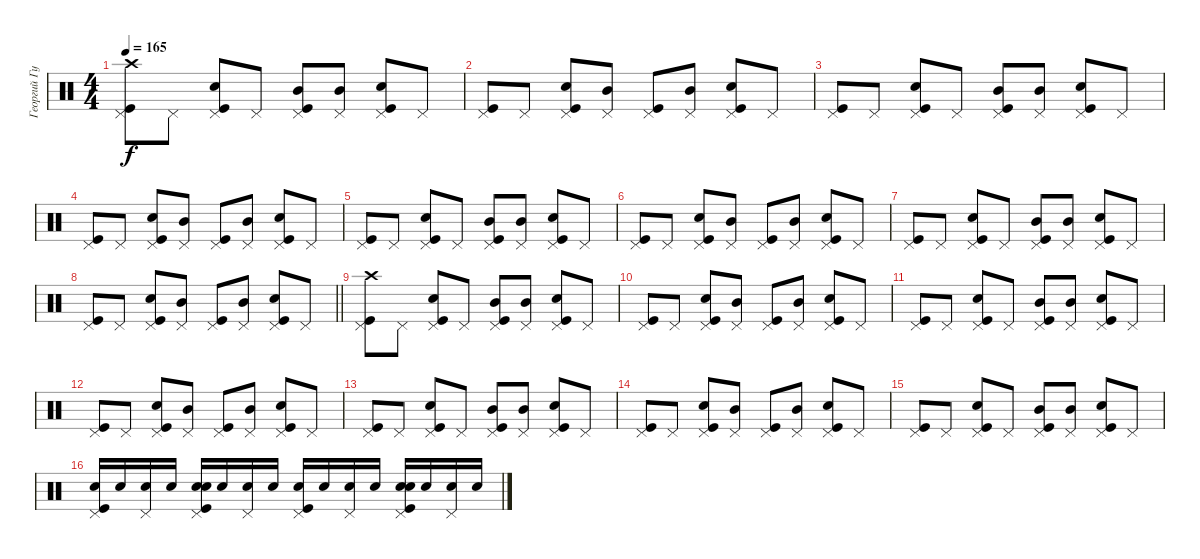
\track ("Георгий Гурьянов" "Георгий Гу") {instrument percussion}
\staff {score}
\articulation defaults
\ts (4 4)
\tempo 165
\clef neutral
\ks c
("Pedal Hi-Hat (hit)" "Kick (hit)" "Crash high (hit)").8{dy f} "Pedal Hi-Hat (hit)".8 ("Pedal Hi-Hat (hit)" "Kick (hit)" "Snare (hit) 2").8 "Pedal Hi-Hat (hit)".8 ("Pedal Hi-Hat (hit)" "Kick (hit)" "Mid Tom (hit)").8 ("Pedal Hi-Hat (hit)" "Mid Tom (hit)").8 ("Pedal Hi-Hat (hit)" "Kick (hit)" "Snare (hit) 2").8 "Pedal Hi-Hat (hit)".8 |
("Pedal Hi-Hat (hit)" "Kick (hit)").8 "Pedal Hi-Hat (hit)".8 ("Pedal Hi-Hat (hit)" "Kick (hit)" "Snare (hit) 2").8 ("Pedal Hi-Hat (hit)" "Mid Tom (hit)").8 ("Pedal Hi-Hat (hit)" "Kick (hit)").8 ("Pedal Hi-Hat (hit)" "Mid Tom (hit)").8 ("Pedal Hi-Hat (hit)" "Kick (hit)" "Snare (hit) 2").8 "Pedal Hi-Hat (hit)".8 |
("Pedal Hi-Hat (hit)" "Kick (hit)").8 "Pedal Hi-Hat (hit)".8 ("Pedal Hi-Hat (hit)" "Kick (hit)" "Snare (hit) 2").8 "Pedal Hi-Hat (hit)".8 ("Pedal Hi-Hat (hit)" "Kick (hit)" "Mid Tom (hit)").8 ("Pedal Hi-Hat (hit)" "Mid Tom (hit)").8 ("Pedal Hi-Hat (hit)" "Kick (hit)" "Snare (hit) 2").8 "Pedal Hi-Hat (hit)".8 |
("Pedal Hi-Hat (hit)" "Kick (hit)").8 "Pedal Hi-Hat (hit)".8 ("Pedal Hi-Hat (hit)" "Kick (hit)" "Snare (hit) 2").8 ("Pedal Hi-Hat (hit)" "Mid Tom (hit)").8 ("Pedal Hi-Hat (hit)" "Kick (hit)").8 ("Pedal Hi-Hat (hit)" "Mid Tom (hit)").8 ("Pedal Hi-Hat (hit)" "Kick (hit)" "Snare (hit) 2").8 "Pedal Hi-Hat (hit)".8 |
("Pedal Hi-Hat (hit)" "Kick (hit)").8 "Pedal Hi-Hat (hit)".8 ("Pedal Hi-Hat (hit)" "Kick (hit)" "Snare (hit) 2").8 "Pedal Hi-Hat (hit)".8 ("Pedal Hi-Hat (hit)" "Kick (hit)" "Mid Tom (hit)").8 ("Pedal Hi-Hat (hit)" "Mid Tom (hit)").8 ("Pedal Hi-Hat (hit)" "Kick (hit)" "Snare (hit) 2").8 "Pedal Hi-Hat (hit)".8 |
("Pedal Hi-Hat (hit)" "Kick (hit)").8 "Pedal Hi-Hat (hit)".8 ("Pedal Hi-Hat (hit)" "Kick (hit)" "Snare (hit) 2").8 ("Pedal Hi-Hat (hit)" "Mid Tom (hit)").8 ("Pedal Hi-Hat (hit)" "Kick (hit)").8 ("Pedal Hi-Hat (hit)" "Mid Tom (hit)").8 ("Pedal Hi-Hat (hit)" "Kick (hit)" "Snare (hit) 2").8 "Pedal Hi-Hat (hit)".8 |
("Pedal Hi-Hat (hit)" "Kick (hit)").8 "Pedal Hi-Hat (hit)".8 ("Pedal Hi-Hat (hit)" "Kick (hit)" "Snare (hit) 2").8 "Pedal Hi-Hat (hit)".8 ("Pedal Hi-Hat (hit)" "Kick (hit)" "Mid Tom (hit)").8 ("Pedal Hi-Hat (hit)" "Mid Tom (hit)").8 ("Pedal Hi-Hat (hit)" "Kick (hit)" "Snare (hit) 2").8 "Pedal Hi-Hat (hit)".8 |
\barLineRight lightlight
("Pedal Hi-Hat (hit)" "Kick (hit)").8 "Pedal Hi-Hat (hit)".8 ("Pedal Hi-Hat (hit)" "Kick (hit)" "Snare (hit) 2").8 ("Pedal Hi-Hat (hit)" "Mid Tom (hit)").8 ("Pedal Hi-Hat (hit)" "Kick (hit)").8 ("Pedal Hi-Hat (hit)" "Mid Tom (hit)").8 ("Pedal Hi-Hat (hit)" "Kick (hit)" "Snare (hit) 2").8 "Pedal Hi-Hat (hit)".8 |
("Pedal Hi-Hat (hit)" "Kick (hit)" "Crash high (hit)").8 "Pedal Hi-Hat (hit)".8 ("Pedal Hi-Hat (hit)" "Kick (hit)" "Snare (hit) 2").8 "Pedal Hi-Hat (hit)".8 ("Pedal Hi-Hat (hit)" "Kick (hit)" "Mid Tom (hit)").8 ("Pedal Hi-Hat (hit)" "Mid Tom (hit)").8 ("Pedal Hi-Hat (hit)" "Kick (hit)" "Snare (hit) 2").8 "Pedal Hi-Hat (hit)".8 |
("Pedal Hi-Hat (hit)" "Kick (hit)").8 "Pedal Hi-Hat (hit)".8 ("Pedal Hi-Hat (hit)" "Kick (hit)" "Snare (hit) 2").8 ("Pedal Hi-Hat (hit)" "Mid Tom (hit)").8 ("Pedal Hi-Hat (hit)" "Kick (hit)").8 ("Pedal Hi-Hat (hit)" "Mid Tom (hit)").8 ("Pedal Hi-Hat (hit)" "Kick (hit)" "Snare (hit) 2").8 "Pedal Hi-Hat (hit)".8 |
("Pedal Hi-Hat (hit)" "Kick (hit)").8{volume 12} "Pedal Hi-Hat (hit)".8 ("Pedal Hi-Hat (hit)" "Kick (hit)" "Snare (hit) 2").8 "Pedal Hi-Hat (hit)".8 ("Pedal Hi-Hat (hit)" "Kick (hit)" "Mid Tom (hit)").8 ("Pedal Hi-Hat (hit)" "Mid Tom (hit)").8 ("Pedal Hi-Hat (hit)" "Kick (hit)" "Snare (hit) 2").8 "Pedal Hi-Hat (hit)".8 |
("Pedal Hi-Hat (hit)" "Kick (hit)").8{volume 10} "Pedal Hi-Hat (hit)".8 ("Pedal Hi-Hat (hit)" "Kick (hit)" "Snare (hit) 2").8 ("Pedal Hi-Hat (hit)" "Mid Tom (hit)").8 ("Pedal Hi-Hat (hit)" "Kick (hit)").8 ("Pedal Hi-Hat (hit)" "Mid Tom (hit)").8 ("Pedal Hi-Hat (hit)" "Kick (hit)" "Snare (hit) 2").8 "Pedal Hi-Hat (hit)".8 |
("Pedal Hi-Hat (hit)" "Kick (hit)").8{volume 7} "Pedal Hi-Hat (hit)".8 ("Pedal Hi-Hat (hit)" "Kick (hit)" "Snare (hit) 2").8 "Pedal Hi-Hat (hit)".8 ("Pedal Hi-Hat (hit)" "Kick (hit)" "Mid Tom (hit)").8 ("Pedal Hi-Hat (hit)" "Mid Tom (hit)").8 ("Pedal Hi-Hat (hit)" "Kick (hit)" "Snare (hit) 2").8 "Pedal Hi-Hat (hit)".8 |
("Pedal Hi-Hat (hit)" "Kick (hit)").8{volume 6} "Pedal Hi-Hat (hit)".8 ("Pedal Hi-Hat (hit)" "Kick (hit)" "Snare (hit) 2").8 ("Pedal Hi-Hat (hit)" "Mid Tom (hit)").8 ("Pedal Hi-Hat (hit)" "Kick (hit)").8 ("Pedal Hi-Hat (hit)" "Mid Tom (hit)").8 ("Pedal Hi-Hat (hit)" "Kick (hit)" "Snare (hit) 2").8 "Pedal Hi-Hat (hit)".8 |
("Pedal Hi-Hat (hit)" "Kick (hit)").8{volume 4} "Pedal Hi-Hat (hit)".8 ("Pedal Hi-Hat (hit)" "Kick (hit)" "Snare (hit) 2").8 "Pedal Hi-Hat (hit)".8 ("Pedal Hi-Hat (hit)" "Kick (hit)" "Mid Tom (hit)").8 ("Pedal Hi-Hat (hit)" "Mid Tom (hit)").8 ("Pedal Hi-Hat (hit)" "Kick (hit)" "Snare (hit) 2").8 "Pedal Hi-Hat (hit)".8 |
("Electric Snare (hit)" "Kick (hit)" "Pedal Hi-Hat (hit)").16{volume 2} "Electric Snare (hit)".16 ("Electric Snare (hit)" "Pedal Hi-Hat (hit)").16 "Electric Snare (hit)".16 ("Electric Snare (hit)" "Kick (hit)" "Pedal Hi-Hat (hit)" "Snare (hit) 2").16 "Electric Snare (hit)".16 ("Electric Snare (hit)" "Pedal Hi-Hat (hit)").16 "Electric Snare (hit)".16 ("Electric Snare (hit)" "Kick (hit)" "Pedal Hi-Hat (hit)").16 "Electric Snare (hit)".16 ("Electric Snare (hit)" "Pedal Hi-Hat (hit)").16 "Electric Snare (hit)".16 ("Electric Snare (hit)" "Kick (hit)" "Pedal Hi-Hat (hit)" "Snare (hit) 2").16 "Electric Snare (hit)".16 ("Electric Snare (hit)" "Pedal Hi-Hat (hit)").16 "Electric Snare (hit)".16
